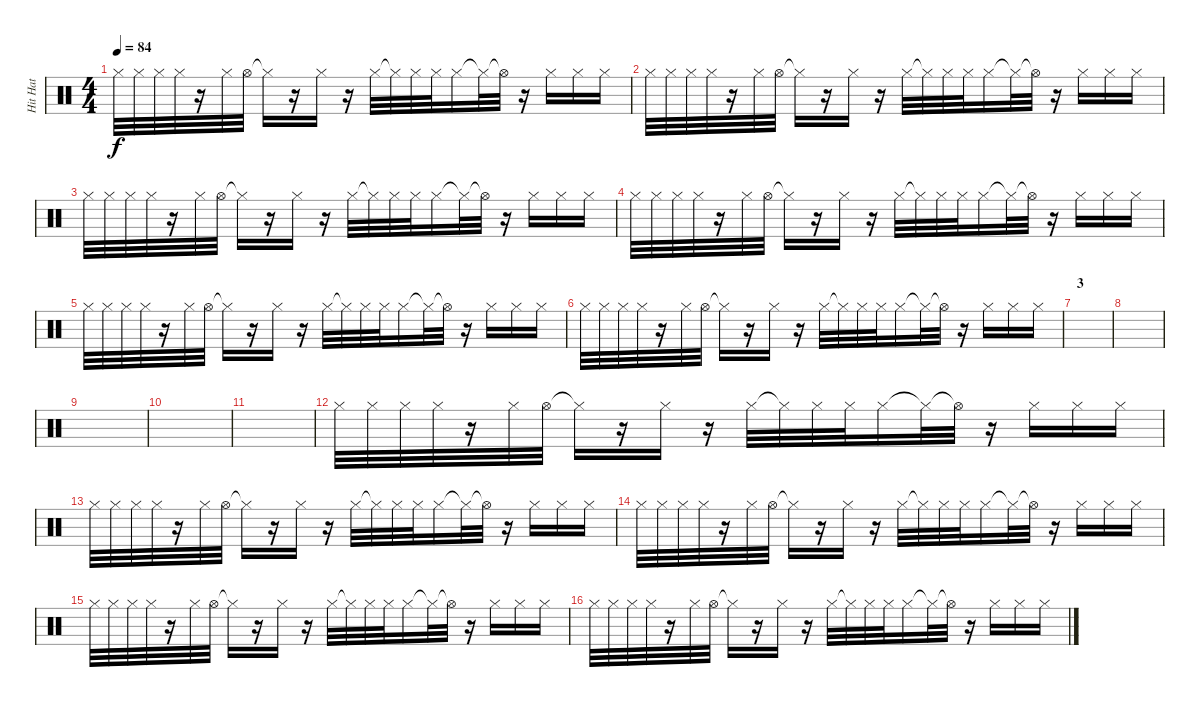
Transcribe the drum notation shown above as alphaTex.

\track ("Hit Hat" "Hit Hat") {instrument percussion}
\staff {score}
\articulation defaults
\ts (4 4)
\tempo 84
\clef neutral
\ks c "Hi-Hat (closed)".32{dy f} "Hi-Hat (closed)".32 "Hi-Hat (closed)".32 "Hi-Hat (closed)".32
r.16 "Hi-Hat (closed)".32 "Hi-Hat (open)".32 "Hi-Hat (closed)"{t}.16 r.16 "Hi-Hat (closed)".16 r.16 "Hi-Hat (closed)".32 "Hi-Hat (closed)"{t}.32 "Hi-Hat (closed)".32 "Hi-Hat (closed)".32 "Hi-Hat (closed)".16 "Hi-Hat (closed)"{t}.32 "Hi-Hat (open)"{t}.32 r.16 "Hi-Hat (closed)".16 "Hi-Hat (closed)".16 "Hi-Hat (closed)".16 |
"Hi-Hat (closed)".32 "Hi-Hat (closed)".32 "Hi-Hat (closed)".32 "Hi-Hat (closed)".32 r.16 "Hi-Hat (closed)".32 "Hi-Hat (open)".32 "Hi-Hat (closed)"{t}.16 r.16 "Hi-Hat (closed)".16 r.16 "Hi-Hat (closed)".32 "Hi-Hat (closed)"{t}.32 "Hi-Hat (closed)".32 "Hi-Hat (closed)".32 "Hi-Hat (closed)".16 "Hi-Hat (closed)"{t}.32 "Hi-Hat (open)"{t}.32 r.16 "Hi-Hat (closed)".16 "Hi-Hat (closed)".16 "Hi-Hat (closed)".16 |
"Hi-Hat (closed)".32 "Hi-Hat (closed)".32 "Hi-Hat (closed)".32 "Hi-Hat (closed)".32 r.16 "Hi-Hat (closed)".32 "Hi-Hat (open)".32 "Hi-Hat (closed)"{t}.16 r.16 "Hi-Hat (closed)".16 r.16 "Hi-Hat (closed)".32 "Hi-Hat (closed)"{t}.32 "Hi-Hat (closed)".32 "Hi-Hat (closed)".32 "Hi-Hat (closed)".16 "Hi-Hat (closed)"{t}.32 "Hi-Hat (open)"{t}.32 r.16 "Hi-Hat (closed)".16 "Hi-Hat (closed)".16 "Hi-Hat (closed)".16 |
"Hi-Hat (closed)".32 "Hi-Hat (closed)".32 "Hi-Hat (closed)".32 "Hi-Hat (closed)".32 r.16 "Hi-Hat (closed)".32 "Hi-Hat (open)".32 "Hi-Hat (closed)"{t}.16 r.16 "Hi-Hat (closed)".16 r.16 "Hi-Hat (closed)".32 "Hi-Hat (closed)"{t}.32 "Hi-Hat (closed)".32 "Hi-Hat (closed)".32 "Hi-Hat (closed)".16 "Hi-Hat (closed)"{t}.32 "Hi-Hat (open)"{t}.32 r.16 "Hi-Hat (closed)".16 "Hi-Hat (closed)".16 "Hi-Hat (closed)".16 |
"Hi-Hat (closed)".32 "Hi-Hat (closed)".32 "Hi-Hat (closed)".32 "Hi-Hat (closed)".32 r.16 "Hi-Hat (closed)".32 "Hi-Hat (open)".32 "Hi-Hat (closed)"{t}.16 r.16 "Hi-Hat (closed)".16 r.16 "Hi-Hat (closed)".32 "Hi-Hat (closed)"{t}.32 "Hi-Hat (closed)".32 "Hi-Hat (closed)".32 "Hi-Hat (closed)".16 "Hi-Hat (closed)"{t}.32 "Hi-Hat (open)"{t}.32 r.16 "Hi-Hat (closed)".16 "Hi-Hat (closed)".16 "Hi-Hat (closed)".16 |
"Hi-Hat (closed)".32 "Hi-Hat (closed)".32 "Hi-Hat (closed)".32 "Hi-Hat (closed)".32 r.16 "Hi-Hat (closed)".32 "Hi-Hat (open)".32 "Hi-Hat (closed)"{t}.16 r.16 "Hi-Hat (closed)".16 r.16 "Hi-Hat (closed)".32 "Hi-Hat (closed)"{t}.32 "Hi-Hat (closed)".32 "Hi-Hat (closed)".32 "Hi-Hat (closed)".16 "Hi-Hat (closed)"{t}.32 "Hi-Hat (open)"{t}.32 r.16 "Hi-Hat (closed)".16 "Hi-Hat (closed)".16 "Hi-Hat (closed)".16 |
\section ("" "3")
|
|
|
|
|
"Hi-Hat (closed)".32 "Hi-Hat (closed)".32 "Hi-Hat (closed)".32 "Hi-Hat (closed)".32 r.16 "Hi-Hat (closed)".32 "Hi-Hat (open)".32 "Hi-Hat (closed)"{t}.16 r.16 "Hi-Hat (closed)".16 r.16 "Hi-Hat (closed)".32 "Hi-Hat (closed)"{t}.32 "Hi-Hat (closed)".32 "Hi-Hat (closed)".32 "Hi-Hat (closed)".16 "Hi-Hat (closed)"{t}.32 "Hi-Hat (open)"{t}.32 r.16 "Hi-Hat (closed)".16 "Hi-Hat (closed)".16 "Hi-Hat (closed)".16 |
"Hi-Hat (closed)".32 "Hi-Hat (closed)".32 "Hi-Hat (closed)".32 "Hi-Hat (closed)".32 r.16 "Hi-Hat (closed)".32 "Hi-Hat (open)".32 "Hi-Hat (closed)"{t}.16 r.16 "Hi-Hat (closed)".16 r.16 "Hi-Hat (closed)".32 "Hi-Hat (closed)"{t}.32 "Hi-Hat (closed)".32 "Hi-Hat (closed)".32 "Hi-Hat (closed)".16 "Hi-Hat (closed)"{t}.32 "Hi-Hat (open)"{t}.32 r.16 "Hi-Hat (closed)".16 "Hi-Hat (closed)".16 "Hi-Hat (closed)".16 |
"Hi-Hat (closed)".32 "Hi-Hat (closed)".32 "Hi-Hat (closed)".32 "Hi-Hat (closed)".32 r.16 "Hi-Hat (closed)".32 "Hi-Hat (open)".32 "Hi-Hat (closed)"{t}.16 r.16 "Hi-Hat (closed)".16 r.16 "Hi-Hat (closed)".32 "Hi-Hat (closed)"{t}.32 "Hi-Hat (closed)".32 "Hi-Hat (closed)".32 "Hi-Hat (closed)".16 "Hi-Hat (closed)"{t}.32 "Hi-Hat (open)"{t}.32 r.16 "Hi-Hat (closed)".16 "Hi-Hat (closed)".16 "Hi-Hat (closed)".16 |
"Hi-Hat (closed)".32 "Hi-Hat (closed)".32 "Hi-Hat (closed)".32 "Hi-Hat (closed)".32 r.16 "Hi-Hat (closed)".32 "Hi-Hat (open)".32 "Hi-Hat (closed)"{t}.16 r.16 "Hi-Hat (closed)".16 r.16 "Hi-Hat (closed)".32 "Hi-Hat (closed)"{t}.32 "Hi-Hat (closed)".32 "Hi-Hat (closed)".32 "Hi-Hat (closed)".16 "Hi-Hat (closed)"{t}.32 "Hi-Hat (open)"{t}.32 r.16 "Hi-Hat (closed)".16 "Hi-Hat (closed)".16 "Hi-Hat (closed)".16 |
"Hi-Hat (closed)".32 "Hi-Hat (closed)".32 "Hi-Hat (closed)".32 "Hi-Hat (closed)".32 r.16 "Hi-Hat (closed)".32 "Hi-Hat (open)".32 "Hi-Hat (closed)"{t}.16 r.16 "Hi-Hat (closed)".16 r.16 "Hi-Hat (closed)".32 "Hi-Hat (closed)"{t}.32 "Hi-Hat (closed)".32 "Hi-Hat (closed)".32 "Hi-Hat (closed)".16 "Hi-Hat (closed)"{t}.32 "Hi-Hat (open)"{t}.32 r.16 "Hi-Hat (closed)".16 "Hi-Hat (closed)".16 "Hi-Hat (closed)".16
